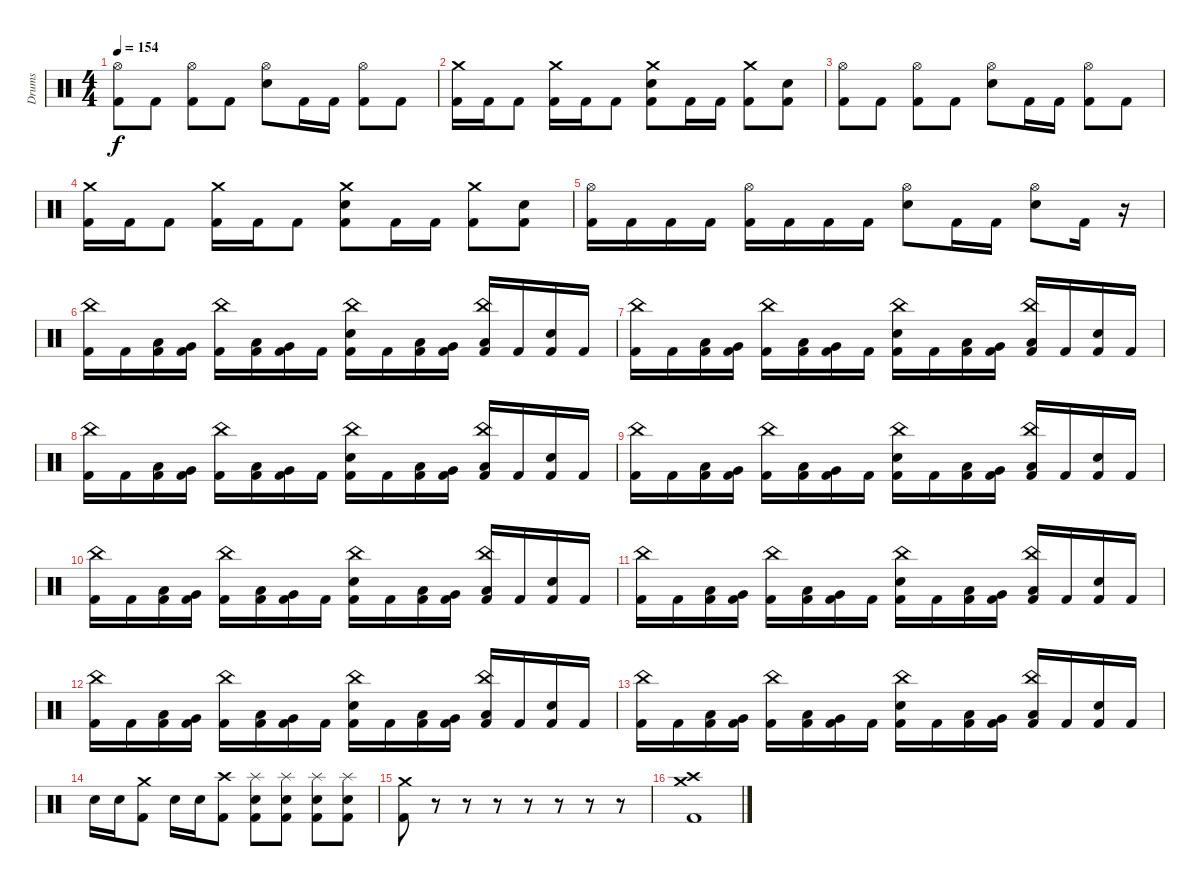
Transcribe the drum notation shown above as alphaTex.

\track ("Drums" "Drums") {instrument percussion}
\staff {score}
\articulation defaults
\ts (4 4)
\tempo 154
\clef neutral
\ks c
("Hi-Hat (open)" "Kick (hit) 2").8{dy f} "Kick (hit) 2".8 ("Hi-Hat (open)" "Kick (hit) 2").8 "Kick (hit) 2".8 ("Hi-Hat (open)" "Electric Snare (hit)").8 "Kick (hit) 2".16 "Kick (hit) 2".16 ("Hi-Hat (open)" "Kick (hit) 2").8 "Kick (hit) 2".8 |
("Crash medium (hit)" "Kick (hit) 2").16 "Kick (hit) 2".16 "Kick (hit) 2".8 ("Crash medium (hit)" "Kick (hit) 2").16 "Kick (hit) 2".16 "Kick (hit) 2".8 ("Crash medium (hit)" "Electric Snare (hit)" "Kick (hit) 2").8 "Kick (hit) 2".16 "Kick (hit) 2".16 ("Crash medium (hit)" "Kick (hit) 2").8 ("Electric Snare (hit)" "Kick (hit) 2").8 |
("Hi-Hat (open)" "Kick (hit) 2").8 "Kick (hit) 2".8 ("Hi-Hat (open)" "Kick (hit) 2").8 "Kick (hit) 2".8 ("Hi-Hat (open)" "Electric Snare (hit)").8 "Kick (hit) 2".16 "Kick (hit) 2".16 ("Hi-Hat (open)" "Kick (hit) 2").8 "Kick (hit) 2".8 |
("Crash medium (hit)" "Kick (hit) 2").16 "Kick (hit) 2".16 "Kick (hit) 2".8 ("Crash medium (hit)" "Kick (hit) 2").16 "Kick (hit) 2".16 "Kick (hit) 2".8 ("Crash medium (hit)" "Electric Snare (hit)" "Kick (hit) 2").8 "Kick (hit) 2".16 "Kick (hit) 2".16 ("Crash medium (hit)" "Kick (hit) 2").8 ("Electric Snare (hit)" "Kick (hit) 2").8 |
("Hi-Hat (open)" "Kick (hit) 2").16 "Kick (hit) 2".16 "Kick (hit) 2".16 "Kick (hit) 2".16 ("Hi-Hat (open)" "Kick (hit) 2").16 "Kick (hit) 2".16 "Kick (hit) 2".16 "Kick (hit) 2".16 ("Hi-Hat (open)" "Electric Snare (hit)").8 "Kick (hit) 2".16 "Kick (hit) 2".16 ("Hi-Hat (open)" "Electric Snare (hit)").8 "Kick (hit) 2".16 r.16 |
("China (hit)" "Kick (hit) 2").16 "Kick (hit) 2".16 ("Low Tom (hit)" "Kick (hit) 2").16 ("Very Low Tom (hit)" "Kick (hit) 2").16 ("China (hit)" "Kick (hit) 2").16 ("Low Tom (hit)" "Kick (hit) 2").16 ("Very Low Tom (hit)" "Kick (hit) 2").16 "Kick (hit) 2".16 ("China (hit)" "Electric Snare (hit)" "Kick (hit) 2").16 "Kick (hit) 2".16 ("Low Tom (hit)" "Kick (hit) 2").16 ("Very Low Tom (hit)" "Kick (hit) 2").16 ("China (hit)" "Low Floor Tom (hit)" "Kick (hit) 2").16 "Kick (hit) 2".16 ("Electric Snare (hit)" "Kick (hit) 2").16 "Kick (hit) 2".16 |
("China (hit)" "Kick (hit) 2").16 "Kick (hit) 2".16 ("Low Tom (hit)" "Kick (hit) 2").16 ("Very Low Tom (hit)" "Kick (hit) 2").16 ("China (hit)" "Kick (hit) 2").16 ("Low Tom (hit)" "Kick (hit) 2").16 ("Very Low Tom (hit)" "Kick (hit) 2").16 "Kick (hit) 2".16 ("China (hit)" "Electric Snare (hit)" "Kick (hit) 2").16 "Kick (hit) 2".16 ("Low Tom (hit)" "Kick (hit) 2").16 ("Very Low Tom (hit)" "Kick (hit) 2").16 ("China (hit)" "Low Floor Tom (hit)" "Kick (hit) 2").16 "Kick (hit) 2".16 ("Electric Snare (hit)" "Kick (hit) 2").16 "Kick (hit) 2".16 |
("China (hit)" "Kick (hit) 2").16 "Kick (hit) 2".16 ("Low Tom (hit)" "Kick (hit) 2").16 ("Very Low Tom (hit)" "Kick (hit) 2").16 ("China (hit)" "Kick (hit) 2").16 ("Low Tom (hit)" "Kick (hit) 2").16 ("Very Low Tom (hit)" "Kick (hit) 2").16 "Kick (hit) 2".16 ("China (hit)" "Electric Snare (hit)" "Kick (hit) 2").16 "Kick (hit) 2".16 ("Low Tom (hit)" "Kick (hit) 2").16 ("Very Low Tom (hit)" "Kick (hit) 2").16 ("China (hit)" "Low Floor Tom (hit)" "Kick (hit) 2").16 "Kick (hit) 2".16 ("Electric Snare (hit)" "Kick (hit) 2").16 "Kick (hit) 2".16 |
("China (hit)" "Kick (hit) 2").16 "Kick (hit) 2".16 ("Low Tom (hit)" "Kick (hit) 2").16 ("Very Low Tom (hit)" "Kick (hit) 2").16 ("China (hit)" "Kick (hit) 2").16 ("Low Tom (hit)" "Kick (hit) 2").16 ("Very Low Tom (hit)" "Kick (hit) 2").16 "Kick (hit) 2".16 ("China (hit)" "Electric Snare (hit)" "Kick (hit) 2").16 "Kick (hit) 2".16 ("Low Tom (hit)" "Kick (hit) 2").16 ("Very Low Tom (hit)" "Kick (hit) 2").16 ("China (hit)" "Low Floor Tom (hit)" "Kick (hit) 2").16 "Kick (hit) 2".16 ("Electric Snare (hit)" "Kick (hit) 2").16 "Kick (hit) 2".16 |
("China (hit)" "Kick (hit) 2").16 "Kick (hit) 2".16 ("Low Tom (hit)" "Kick (hit) 2").16 ("Very Low Tom (hit)" "Kick (hit) 2").16 ("China (hit)" "Kick (hit) 2").16 ("Low Tom (hit)" "Kick (hit) 2").16 ("Very Low Tom (hit)" "Kick (hit) 2").16 "Kick (hit) 2".16 ("China (hit)" "Electric Snare (hit)" "Kick (hit) 2").16 "Kick (hit) 2".16 ("Low Tom (hit)" "Kick (hit) 2").16 ("Very Low Tom (hit)" "Kick (hit) 2").16 ("China (hit)" "Low Floor Tom (hit)" "Kick (hit) 2").16 "Kick (hit) 2".16 ("Electric Snare (hit)" "Kick (hit) 2").16 "Kick (hit) 2".16 |
("China (hit)" "Kick (hit) 2").16 "Kick (hit) 2".16 ("Low Tom (hit)" "Kick (hit) 2").16 ("Very Low Tom (hit)" "Kick (hit) 2").16 ("China (hit)" "Kick (hit) 2").16 ("Low Tom (hit)" "Kick (hit) 2").16 ("Very Low Tom (hit)" "Kick (hit) 2").16 "Kick (hit) 2".16 ("China (hit)" "Electric Snare (hit)" "Kick (hit) 2").16 "Kick (hit) 2".16 ("Low Tom (hit)" "Kick (hit) 2").16 ("Very Low Tom (hit)" "Kick (hit) 2").16 ("China (hit)" "Low Floor Tom (hit)" "Kick (hit) 2").16 "Kick (hit) 2".16 ("Electric Snare (hit)" "Kick (hit) 2").16 "Kick (hit) 2".16 |
("China (hit)" "Kick (hit) 2").16 "Kick (hit) 2".16 ("Low Tom (hit)" "Kick (hit) 2").16 ("Very Low Tom (hit)" "Kick (hit) 2").16 ("China (hit)" "Kick (hit) 2").16 ("Low Tom (hit)" "Kick (hit) 2").16 ("Very Low Tom (hit)" "Kick (hit) 2").16 "Kick (hit) 2".16 ("China (hit)" "Electric Snare (hit)" "Kick (hit) 2").16 "Kick (hit) 2".16 ("Low Tom (hit)" "Kick (hit) 2").16 ("Very Low Tom (hit)" "Kick (hit) 2").16 ("China (hit)" "Low Floor Tom (hit)" "Kick (hit) 2").16 "Kick (hit) 2".16 ("Electric Snare (hit)" "Kick (hit) 2").16 "Kick (hit) 2".16 |
("China (hit)" "Kick (hit) 2").16 "Kick (hit) 2".16 ("Low Tom (hit)" "Kick (hit) 2").16 ("Very Low Tom (hit)" "Kick (hit) 2").16 ("China (hit)" "Kick (hit) 2").16 ("Low Tom (hit)" "Kick (hit) 2").16 ("Very Low Tom (hit)" "Kick (hit) 2").16 "Kick (hit) 2".16 ("China (hit)" "Electric Snare (hit)" "Kick (hit) 2").16 "Kick (hit) 2".16 ("Low Tom (hit)" "Kick (hit) 2").16 ("Very Low Tom (hit)" "Kick (hit) 2").16 ("China (hit)" "Low Floor Tom (hit)" "Kick (hit) 2").16 "Kick (hit) 2".16 ("Electric Snare (hit)" "Kick (hit) 2").16 "Kick (hit) 2".16 |
"Electric Snare (hit)".16 "Electric Snare (hit)".16 ("Crash medium (hit)" "Kick (hit) 2").8 "Electric Snare (hit)".16 "Electric Snare (hit)".16 ("Crash high (hit)" "Kick (hit) 2").8 ("Splash (hit)" "Electric Snare (hit)" "Kick (hit) 2").8 ("Splash (hit)" "Electric Snare (hit)" "Kick (hit) 2").8 ("Splash (hit)" "Electric Snare (hit)" "Kick (hit) 2").8 ("Splash (hit)" "Electric Snare (hit)" "Kick (hit) 2").8 |
("Crash medium (hit)" "Kick (hit) 2").8 r.8 r.8 r.8 r.8 r.8 r.8 r.8 |
("Crash medium (hit)" "Crash high (hit)" "Kick (hit) 2").1
